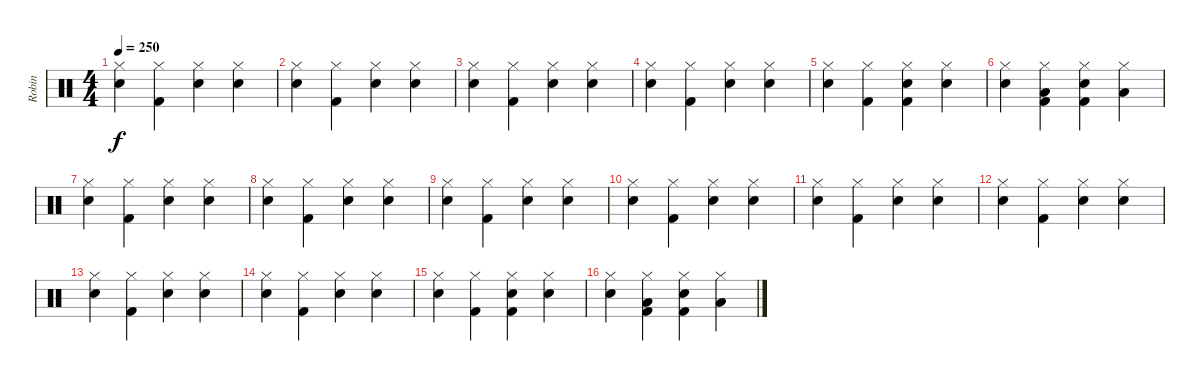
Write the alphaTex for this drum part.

\track ("Robin" "Robin") {instrument percussion}
\staff {score}
\articulation defaults
\ts (4 4)
\tempo 250
\clef neutral
\ks c
("Hi-Hat (closed)" "Snare (hit) 2").4{dy f} ("Hi-Hat (closed)" "Kick (hit) 2").4 ("Hi-Hat (closed)" "Snare (hit) 2").4 ("Hi-Hat (closed)" "Snare (hit) 2").4 |
("Hi-Hat (closed)" "Snare (hit) 2").4 ("Hi-Hat (closed)" "Kick (hit) 2").4 ("Hi-Hat (closed)" "Snare (hit) 2").4 ("Hi-Hat (closed)" "Snare (hit) 2").4 |
("Hi-Hat (closed)" "Snare (hit) 2").4 ("Hi-Hat (closed)" "Kick (hit) 2").4 ("Hi-Hat (closed)" "Snare (hit) 2").4 ("Hi-Hat (closed)" "Snare (hit) 2").4 |
("Hi-Hat (closed)" "Snare (hit) 2").4 ("Hi-Hat (closed)" "Kick (hit) 2").4 ("Hi-Hat (closed)" "Snare (hit) 2").4 ("Hi-Hat (closed)" "Snare (hit) 2").4 |
("Hi-Hat (closed)" "Snare (hit) 2").4 ("Hi-Hat (closed)" "Kick (hit) 2").4 ("Hi-Hat (closed)" "Kick (hit) 2" "Snare (hit) 2").4 ("Hi-Hat (closed)" "Snare (hit) 2").4 |
("Hi-Hat (closed)" "Snare (hit) 2").4 ("Hi-Hat (closed)" "Kick (hit) 2" "Low Floor Tom (hit)").4 ("Hi-Hat (closed)" "Kick (hit) 2" "Snare (hit) 2").4 ("Hi-Hat (closed)" "Low Floor Tom (hit)").4 |
("Hi-Hat (closed)" "Snare (hit) 2").4 ("Hi-Hat (closed)" "Kick (hit) 2").4 ("Hi-Hat (closed)" "Snare (hit) 2").4 ("Hi-Hat (closed)" "Snare (hit) 2").4 |
("Hi-Hat (closed)" "Snare (hit) 2").4 ("Hi-Hat (closed)" "Kick (hit) 2").4 ("Hi-Hat (closed)" "Snare (hit) 2").4 ("Hi-Hat (closed)" "Snare (hit) 2").4 |
("Hi-Hat (closed)" "Snare (hit) 2").4 ("Hi-Hat (closed)" "Kick (hit) 2").4 ("Hi-Hat (closed)" "Snare (hit) 2").4 ("Hi-Hat (closed)" "Snare (hit) 2").4 |
("Hi-Hat (closed)" "Snare (hit) 2").4 ("Hi-Hat (closed)" "Kick (hit) 2").4 ("Hi-Hat (closed)" "Snare (hit) 2").4 ("Hi-Hat (closed)" "Snare (hit) 2").4 |
("Hi-Hat (closed)" "Snare (hit) 2").4 ("Hi-Hat (closed)" "Kick (hit) 2").4 ("Hi-Hat (closed)" "Snare (hit) 2").4 ("Hi-Hat (closed)" "Snare (hit) 2").4 |
("Hi-Hat (closed)" "Snare (hit) 2").4 ("Hi-Hat (closed)" "Kick (hit) 2").4 ("Hi-Hat (closed)" "Snare (hit) 2").4 ("Hi-Hat (closed)" "Snare (hit) 2").4 |
("Hi-Hat (closed)" "Snare (hit) 2").4 ("Hi-Hat (closed)" "Kick (hit) 2").4 ("Hi-Hat (closed)" "Snare (hit) 2").4 ("Hi-Hat (closed)" "Snare (hit) 2").4 |
("Hi-Hat (closed)" "Snare (hit) 2").4 ("Hi-Hat (closed)" "Kick (hit) 2").4 ("Hi-Hat (closed)" "Snare (hit) 2").4 ("Hi-Hat (closed)" "Snare (hit) 2").4 |
("Hi-Hat (closed)" "Snare (hit) 2").4 ("Hi-Hat (closed)" "Kick (hit) 2").4 ("Hi-Hat (closed)" "Kick (hit) 2" "Snare (hit) 2").4 ("Hi-Hat (closed)" "Snare (hit) 2").4 |
("Hi-Hat (closed)" "Snare (hit) 2").4 ("Hi-Hat (closed)" "Kick (hit) 2" "Low Floor Tom (hit)").4 ("Hi-Hat (closed)" "Kick (hit) 2" "Snare (hit) 2").4 ("Hi-Hat (closed)" "Low Floor Tom (hit)").4
